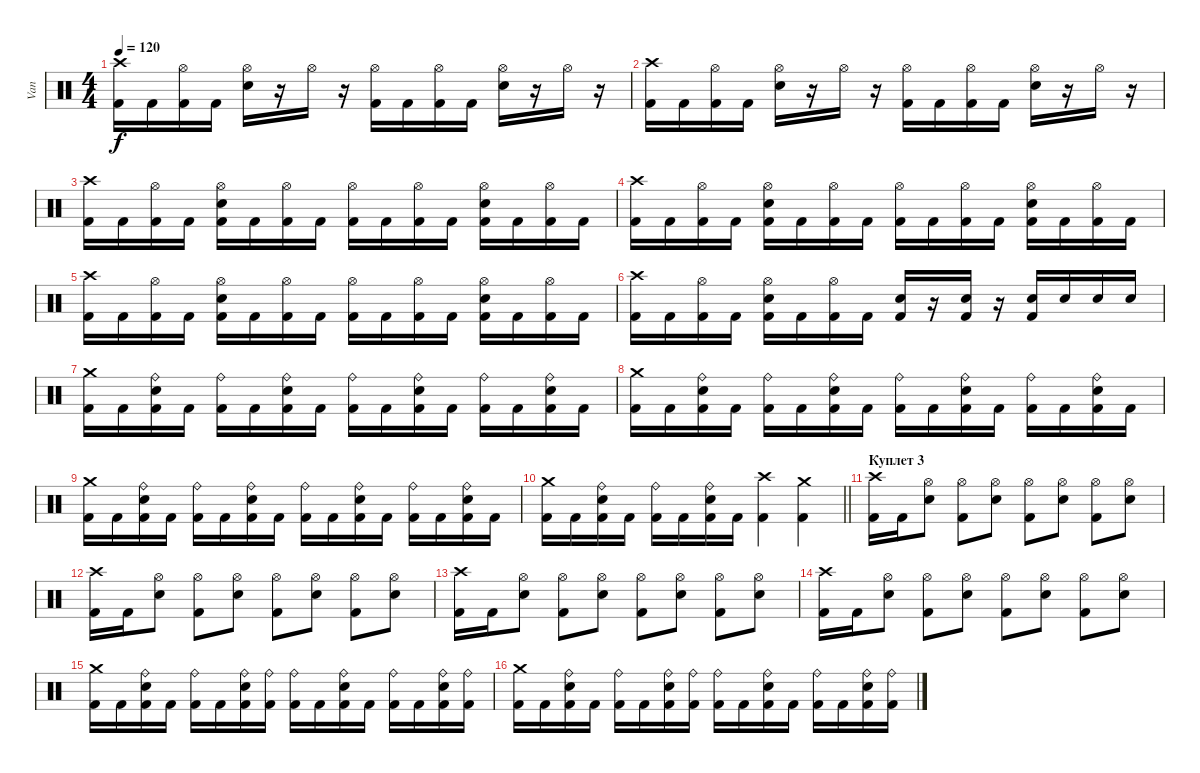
\track ("Van" "Van") {instrument percussion}
\staff {score}
\articulation defaults
\ts (4 4)
\tempo 120
\clef neutral
\ks c
("Crash high (hit)" "Kick (hit) 2").16{dy f} "Kick (hit) 2".16 ("Hi-Hat (open)" "Kick (hit) 2").16 "Kick (hit) 2".16 ("Hi-Hat (open)" "Electric Snare (hit)").16 r.16 "Hi-Hat (open)".16 r.16 ("Hi-Hat (open)" "Kick (hit) 2").16 "Kick (hit) 2".16 ("Hi-Hat (open)" "Kick (hit) 2").16 "Kick (hit) 2".16 ("Hi-Hat (open)" "Electric Snare (hit)").16 r.16 "Hi-Hat (open)".16 r.16 |
("Crash high (hit)" "Kick (hit) 2").16 "Kick (hit) 2".16 ("Hi-Hat (open)" "Kick (hit) 2").16 "Kick (hit) 2".16 ("Hi-Hat (open)" "Electric Snare (hit)").16 r.16 "Hi-Hat (open)".16 r.16 ("Hi-Hat (open)" "Kick (hit) 2").16 "Kick (hit) 2".16 ("Hi-Hat (open)" "Kick (hit) 2").16 "Kick (hit) 2".16 ("Hi-Hat (open)" "Electric Snare (hit)").16 r.16 "Hi-Hat (open)".16 r.16 |
("Crash high (hit)" "Kick (hit) 2").16 "Kick (hit) 2".16 ("Hi-Hat (open)" "Kick (hit) 2").16 "Kick (hit) 2".16 ("Hi-Hat (open)" "Electric Snare (hit)" "Kick (hit) 2").16 "Kick (hit) 2".16 ("Hi-Hat (open)" "Kick (hit) 2").16 "Kick (hit) 2".16 ("Hi-Hat (open)" "Kick (hit) 2").16 "Kick (hit) 2".16 ("Hi-Hat (open)" "Kick (hit) 2").16 "Kick (hit) 2".16 ("Hi-Hat (open)" "Electric Snare (hit)" "Kick (hit) 2").16 "Kick (hit) 2".16 ("Hi-Hat (open)" "Kick (hit) 2").16 "Kick (hit) 2".16 |
("Crash high (hit)" "Kick (hit) 2").16 "Kick (hit) 2".16 ("Hi-Hat (open)" "Kick (hit) 2").16 "Kick (hit) 2".16 ("Hi-Hat (open)" "Electric Snare (hit)" "Kick (hit) 2").16 "Kick (hit) 2".16 ("Hi-Hat (open)" "Kick (hit) 2").16 "Kick (hit) 2".16 ("Hi-Hat (open)" "Kick (hit) 2").16 "Kick (hit) 2".16 ("Hi-Hat (open)" "Kick (hit) 2").16 "Kick (hit) 2".16 ("Hi-Hat (open)" "Electric Snare (hit)" "Kick (hit) 2").16 "Kick (hit) 2".16 ("Hi-Hat (open)" "Kick (hit) 2").16 "Kick (hit) 2".16 |
("Crash high (hit)" "Kick (hit) 2").16 "Kick (hit) 2".16 ("Hi-Hat (open)" "Kick (hit) 2").16 "Kick (hit) 2".16 ("Hi-Hat (open)" "Electric Snare (hit)" "Kick (hit) 2").16 "Kick (hit) 2".16 ("Hi-Hat (open)" "Kick (hit) 2").16 "Kick (hit) 2".16 ("Hi-Hat (open)" "Kick (hit) 2").16 "Kick (hit) 2".16 ("Hi-Hat (open)" "Kick (hit) 2").16 "Kick (hit) 2".16 ("Hi-Hat (open)" "Electric Snare (hit)" "Kick (hit) 2").16 "Kick (hit) 2".16 ("Hi-Hat (open)" "Kick (hit) 2").16 "Kick (hit) 2".16 |
("Crash high (hit)" "Kick (hit) 2").16 "Kick (hit) 2".16 ("Hi-Hat (open)" "Kick (hit) 2").16 "Kick (hit) 2".16 ("Hi-Hat (open)" "Electric Snare (hit)" "Kick (hit) 2").16 "Kick (hit) 2".16 ("Hi-Hat (open)" "Kick (hit) 2").16 "Kick (hit) 2".16 ("Electric Snare (hit)" "Kick (hit) 2").16 r.16 ("Electric Snare (hit)" "Kick (hit) 2").16 r.16 ("Electric Snare (hit)" "Kick (hit) 2").16 "Electric Snare (hit)".16 "Electric Snare (hit)".16 "Electric Snare (hit)".16 |
("Crash medium (hit)" "Kick (hit) 2").16 "Kick (hit) 2".16 ("Ride (bell)" "Electric Snare (hit)" "Kick (hit) 2").16 "Kick (hit) 2".16 ("Ride (bell)" "Kick (hit) 2").16 "Kick (hit) 2".16 ("Ride (bell)" "Electric Snare (hit)" "Kick (hit) 2").16 "Kick (hit) 2".16 ("Ride (bell)" "Kick (hit) 2").16 "Kick (hit) 2".16 ("Ride (bell)" "Electric Snare (hit)" "Kick (hit) 2").16 "Kick (hit) 2".16 ("Ride (bell)" "Kick (hit) 2").16 "Kick (hit) 2".16 ("Ride (bell)" "Electric Snare (hit)" "Kick (hit) 2").16 "Kick (hit) 2".16 |
("Crash medium (hit)" "Kick (hit) 2").16 "Kick (hit) 2".16 ("Ride (bell)" "Electric Snare (hit)" "Kick (hit) 2").16 "Kick (hit) 2".16 ("Ride (bell)" "Kick (hit) 2").16 "Kick (hit) 2".16 ("Ride (bell)" "Electric Snare (hit)" "Kick (hit) 2").16 "Kick (hit) 2".16 ("Ride (bell)" "Kick (hit) 2").16 "Kick (hit) 2".16 ("Ride (bell)" "Electric Snare (hit)" "Kick (hit) 2").16 "Kick (hit) 2".16 ("Ride (bell)" "Kick (hit) 2").16 "Kick (hit) 2".16 ("Ride (bell)" "Electric Snare (hit)" "Kick (hit) 2").16 "Kick (hit) 2".16 |
("Crash medium (hit)" "Kick (hit) 2").16 "Kick (hit) 2".16 ("Ride (bell)" "Electric Snare (hit)" "Kick (hit) 2").16 "Kick (hit) 2".16 ("Ride (bell)" "Kick (hit) 2").16 "Kick (hit) 2".16 ("Ride (bell)" "Electric Snare (hit)" "Kick (hit) 2").16 "Kick (hit) 2".16 ("Ride (bell)" "Kick (hit) 2").16 "Kick (hit) 2".16 ("Ride (bell)" "Electric Snare (hit)" "Kick (hit) 2").16 "Kick (hit) 2".16 ("Ride (bell)" "Kick (hit) 2").16 "Kick (hit) 2".16 ("Ride (bell)" "Electric Snare (hit)" "Kick (hit) 2").16 "Kick (hit) 2".16 |
\barLineRight lightlight
("Crash medium (hit)" "Kick (hit) 2").16 "Kick (hit) 2".16 ("Ride (bell)" "Electric Snare (hit)" "Kick (hit) 2").16 "Kick (hit) 2".16 ("Ride (bell)" "Kick (hit) 2").16 "Kick (hit) 2".16 ("Ride (bell)" "Electric Snare (hit)" "Kick (hit) 2").16 "Kick (hit) 2".16 ("Crash high (hit)" "Kick (hit) 2").4 ("Crash medium (hit)" "Kick (hit) 2").4 |
\section ("" "Куплет 3")
("Crash high (hit)" "Kick (hit) 2").16 "Kick (hit) 2".16 ("Hi-Hat (open)" "Electric Snare (hit)").8 ("Hi-Hat (open)" "Kick (hit) 2").8 ("Hi-Hat (open)" "Electric Snare (hit)").8 ("Hi-Hat (open)" "Kick (hit) 2").8 ("Hi-Hat (open)" "Electric Snare (hit)").8 ("Hi-Hat (open)" "Kick (hit) 2").8 ("Hi-Hat (open)" "Electric Snare (hit)").8 |
("Crash high (hit)" "Kick (hit) 2").16 "Kick (hit) 2".16 ("Hi-Hat (open)" "Electric Snare (hit)").8 ("Hi-Hat (open)" "Kick (hit) 2").8 ("Hi-Hat (open)" "Electric Snare (hit)").8 ("Hi-Hat (open)" "Kick (hit) 2").8 ("Hi-Hat (open)" "Electric Snare (hit)").8 ("Hi-Hat (open)" "Kick (hit) 2").8 ("Hi-Hat (open)" "Electric Snare (hit)").8 |
("Crash high (hit)" "Kick (hit) 2").16 "Kick (hit) 2".16 ("Hi-Hat (open)" "Electric Snare (hit)").8 ("Hi-Hat (open)" "Kick (hit) 2").8 ("Hi-Hat (open)" "Electric Snare (hit)").8 ("Hi-Hat (open)" "Kick (hit) 2").8 ("Hi-Hat (open)" "Electric Snare (hit)").8 ("Hi-Hat (open)" "Kick (hit) 2").8 ("Hi-Hat (open)" "Electric Snare (hit)").8 |
("Crash high (hit)" "Kick (hit) 2").16 "Kick (hit) 2".16 ("Hi-Hat (open)" "Electric Snare (hit)").8 ("Hi-Hat (open)" "Kick (hit) 2").8 ("Hi-Hat (open)" "Electric Snare (hit)").8 ("Hi-Hat (open)" "Kick (hit) 2").8 ("Hi-Hat (open)" "Electric Snare (hit)").8 ("Hi-Hat (open)" "Kick (hit) 2").8 ("Hi-Hat (open)" "Electric Snare (hit)").8 |
("Crash medium (hit)" "Kick (hit) 2").16 "Kick (hit) 2".16 ("Ride (bell)" "Electric Snare (hit)" "Kick (hit) 2").16 "Kick (hit) 2".16 ("Ride (bell)" "Kick (hit) 2").16 "Kick (hit) 2".16 ("Ride (bell)" "Electric Snare (hit)" "Kick (hit) 2").16 ("Ride (bell)" "Kick (hit) 2").16 ("Ride (bell)" "Kick (hit) 2").16 "Kick (hit) 2".16 ("Ride (bell)" "Electric Snare (hit)" "Kick (hit) 2").16 "Kick (hit) 2".16 ("Ride (bell)" "Kick (hit) 2").16 "Kick (hit) 2".16 ("Ride (bell)" "Electric Snare (hit)" "Kick (hit) 2").16 ("Ride (bell)" "Kick (hit) 2").16 |
("Crash medium (hit)" "Kick (hit) 2").16 "Kick (hit) 2".16 ("Ride (bell)" "Electric Snare (hit)" "Kick (hit) 2").16 "Kick (hit) 2".16 ("Ride (bell)" "Kick (hit) 2").16 "Kick (hit) 2".16 ("Ride (bell)" "Electric Snare (hit)" "Kick (hit) 2").16 ("Ride (bell)" "Kick (hit) 2").16 ("Ride (bell)" "Kick (hit) 2").16 "Kick (hit) 2".16 ("Ride (bell)" "Electric Snare (hit)" "Kick (hit) 2").16 "Kick (hit) 2".16 ("Ride (bell)" "Kick (hit) 2").16 "Kick (hit) 2".16 ("Ride (bell)" "Electric Snare (hit)" "Kick (hit) 2").16 ("Ride (bell)" "Kick (hit) 2").16
